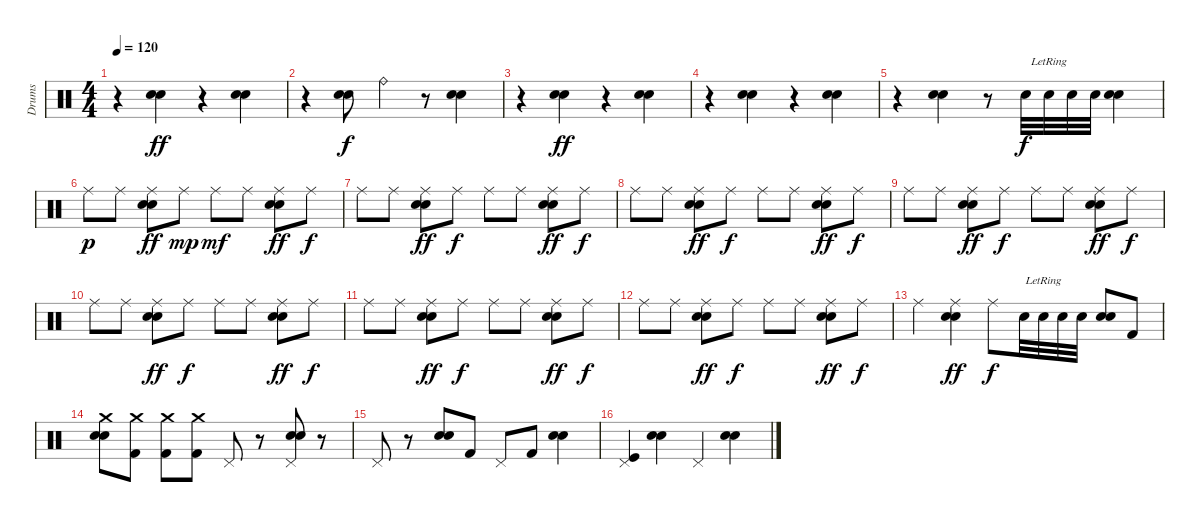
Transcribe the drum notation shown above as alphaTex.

\track ("Drums" "Drums") {instrument percussion}
\staff {score}
\articulation defaults
\ts (4 4)
\tempo 120
\clef neutral
\ks c
r.4{dy ff} ("Electric Snare (hit)" "Snare (hit) 2").4 r.4 ("Electric Snare (hit)" "Snare (hit) 2").4 |
r.4 ("Electric Snare (hit)" "Snare (hit) 2").8{dy f} "Ride (bell)".4 r.8 ("Electric Snare (hit)" "Snare (hit) 2").4 |
r.4 ("Electric Snare (hit)" "Snare (hit) 2").4{dy ff} r.4 ("Electric Snare (hit)" "Snare (hit) 2").4 |
r.4 ("Electric Snare (hit)" "Snare (hit) 2").4 r.4 ("Electric Snare (hit)" "Snare (hit) 2").4 |
r.4 ("Electric Snare (hit)" "Snare (hit) 2").4 r.8 "Snare (hit) 2".32{dy f} "Snare (hit) 2"{lr}.32 "Snare (hit) 2".32 "Snare (hit) 2".32 ("Electric Snare (hit)" "Snare (hit) 2").4 |
"Ride (middle)".8{dy p} "Ride (middle)".8 ("Ride (middle)" "Electric Snare (hit)" "Snare (hit) 2").8{dy ff} "Ride (middle)".8{dy mp} "Ride (middle)".8{dy mf} "Ride (middle)".8 ("Ride (middle)" "Electric Snare (hit)" "Snare (hit) 2").8{dy ff} "Ride (middle)".8{dy f} |
"Ride (middle)".8 "Ride (middle)".8 ("Ride (middle)" "Electric Snare (hit)" "Snare (hit) 2").8{dy ff} "Ride (middle)".8{dy f} "Ride (middle)".8 "Ride (middle)".8 ("Ride (middle)" "Electric Snare (hit)" "Snare (hit) 2").8{dy ff} "Ride (middle)".8{dy f} |
"Ride (middle)".8 "Ride (middle)".8 ("Ride (middle)" "Electric Snare (hit)" "Snare (hit) 2").8{dy ff} "Ride (middle)".8{dy f} "Ride (middle)".8 "Ride (middle)".8 ("Ride (middle)" "Electric Snare (hit)" "Snare (hit) 2").8{dy ff} "Ride (middle)".8{dy f} |
"Ride (middle)".8 "Ride (middle)".8 ("Ride (middle)" "Electric Snare (hit)" "Snare (hit) 2").8{dy ff} "Ride (middle)".8{dy f} "Ride (middle)".8 "Ride (middle)".8 ("Ride (middle)" "Electric Snare (hit)" "Snare (hit) 2").8{dy ff} "Ride (middle)".8{dy f} |
"Ride (middle)".8 "Ride (middle)".8 ("Ride (middle)" "Electric Snare (hit)" "Snare (hit) 2").8{dy ff} "Ride (middle)".8{dy f} "Ride (middle)".8 "Ride (middle)".8 ("Ride (middle)" "Electric Snare (hit)" "Snare (hit) 2").8{dy ff} "Ride (middle)".8{dy f} |
"Ride (middle)".8 "Ride (middle)".8 ("Ride (middle)" "Electric Snare (hit)" "Snare (hit) 2").8{dy ff} "Ride (middle)".8{dy f} "Ride (middle)".8 "Ride (middle)".8 ("Ride (middle)" "Electric Snare (hit)" "Snare (hit) 2").8{dy ff} "Ride (middle)".8{dy f} |
"Ride (middle)".8 "Ride (middle)".8 ("Ride (middle)" "Electric Snare (hit)" "Snare (hit) 2").8{dy ff} "Ride (middle)".8{dy f} "Ride (middle)".8 "Ride (middle)".8 ("Ride (middle)" "Electric Snare (hit)" "Snare (hit) 2").8{dy ff} "Ride (middle)".8{dy f} |
"Ride (middle)".4 ("Ride (middle)" "Electric Snare (hit)" "Snare (hit) 2").4{dy ff} "Ride (middle)".8{dy f} "Snare (hit) 2".32 "Snare (hit) 2"{lr}.32 "Snare (hit) 2".32 "Snare (hit) 2".32 ("Electric Snare (hit)" "Snare (hit) 2").8 "Kick (hit) 2".8 |
("Crash medium (hit)" "Electric Snare (hit)" "Snare (hit) 2").8 ("Crash medium (hit)" "Kick (hit) 2").8 ("Crash medium (hit)" "Kick (hit) 2").8 ("Crash medium (hit)" "Kick (hit) 2").8 "Pedal Hi-Hat (hit)".8 r.8 ("Pedal Hi-Hat (hit)" "Snare (hit) 2" "Electric Snare (hit)").8 r.8 |
"Pedal Hi-Hat (hit)".8 r.8 ("Electric Snare (hit)" "Snare (hit) 2").8 "Kick (hit) 2".8 "Pedal Hi-Hat (hit)".8 "Kick (hit) 2".8 ("Electric Snare (hit)" "Snare (hit) 2").4 |
("Pedal Hi-Hat (hit)" "Kick (hit)").4 ("Electric Snare (hit)" "Snare (hit) 2").4 "Pedal Hi-Hat (hit)".4 ("Snare (hit) 2" "Electric Snare (hit)").4
